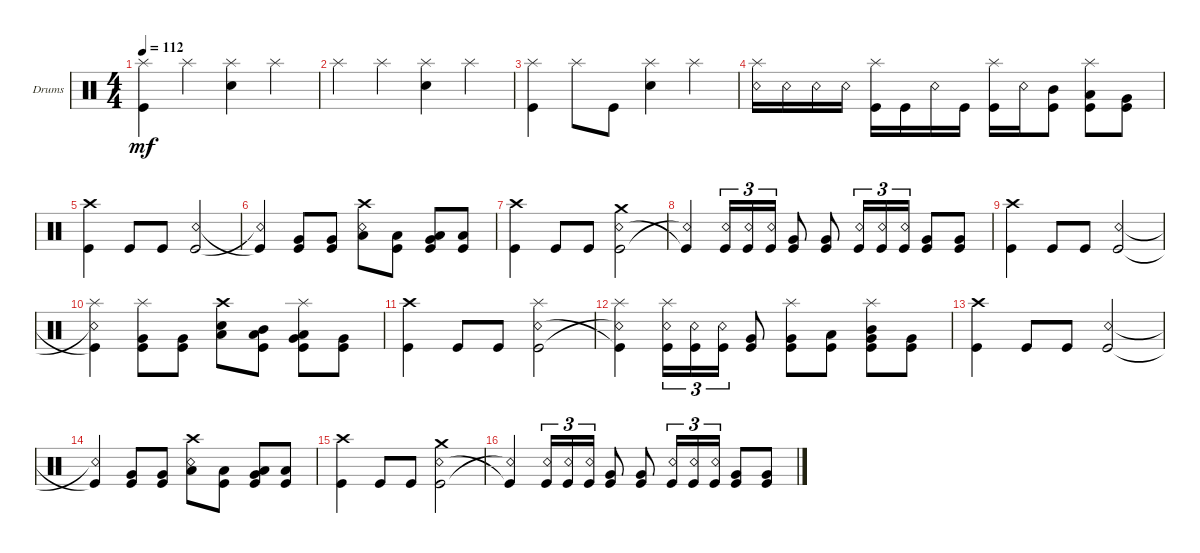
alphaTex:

\defaultSystemsLayout 4
\bracketExtendMode groupsimilarinstruments
\firstSystemTrackNameOrientation horizontal
\otherSystemsTrackNameOrientation horizontal
\track ("Drumkit" "Drums") {instrument percussion}
\staff {score}
\articulation defaults
\ts (4 4)
\tempo 112
\clef neutral
\ks c
("Splash (hit)" "Kick (hit)").4{dy mf} "Splash (hit)".4 ("Splash (hit)" "Snare (hit) 2").4 "Splash (hit)".4 |
"Splash (hit)".4 "Splash (hit)".4 ("Splash (hit)" "Snare (hit) 2").4 "Splash (hit)".4 |
("Splash (hit)" "Kick (hit)").4 "Splash (hit)".8 "Kick (hit)".8 ("Splash (hit)" "Snare (hit) 2").4 "Splash (hit)".4 |
("Snare (rim shot)" "Splash (hit)").16 "Snare (rim shot)".16 "Snare (rim shot)".16 "Snare (rim shot)".16 ("Kick (hit)" "Splash (hit)").16 "Kick (hit)".16 "Snare (rim shot)".16 "Kick (hit)".16 ("Kick (hit)" "Splash (hit)").16 "Snare (rim shot)".16 ("Kick (hit)" "Mid Tom (hit)").8 ("Kick (hit)" "Low Tom (hit)" "Splash (hit)").8 ("Kick (hit)" "Very Low Tom (hit)").8 |
("Kick (hit)" "Crash high (hit)").4 "Kick (hit)".8 "Kick (hit)".8 ("Snare (rim shot)" "Kick (hit)").2 |
("Kick (hit)"{t} "Snare (rim shot)"{t}).4 ("Kick (hit)" "Very Low Tom (hit)").8 ("Kick (hit)" "Very Low Tom (hit)").8 ("Snare (rim shot)" "Crash high (hit)" "Low Tom (hit)").8 ("Kick (hit)" "Low Tom (hit)").8 ("Kick (hit)" "Very Low Tom (hit)" "Low Tom (hit)").8 ("Kick (hit)" "Low Tom (hit)").8 |
("Kick (hit)" "Crash high (hit)").4 "Kick (hit)".8 "Kick (hit)".8 ("Snare (rim shot)" "Kick (hit)" "Crash medium (hit)").2 |
("Kick (hit)"{t} "Snare (rim shot)"{t}).4 ("Snare (rim shot)" "Kick (hit)").16{tu (3 2)} ("Kick (hit)" "Snare (rim shot)").16{tu (3 2)} ("Kick (hit)" "Snare (rim shot)").16{tu (3 2)} ("Kick (hit)" "Very Low Tom (hit)").8 ("Kick (hit)" "Very Low Tom (hit)").8 ("Snare (rim shot)" "Kick (hit)").16{tu (3 2)} ("Snare (rim shot)" "Kick (hit)").16{tu (3 2)} ("Snare (rim shot)" "Kick (hit)").16{tu (3 2)} ("Kick (hit)" "Very Low Tom (hit)").8 ("Kick (hit)" "Very Low Tom (hit)").8 |
("Kick (hit)" "Crash high (hit)").4 "Kick (hit)".8 "Kick (hit)".8 ("Snare (rim shot)" "Kick (hit)").2 |
("Kick (hit)"{t} "Snare (rim shot)"{t} "Splash (hit)").4 ("Kick (hit)" "Very Low Tom (hit)" "Splash (hit)").8 ("Kick (hit)" "Very Low Tom (hit)").8 ("Snare (hit) 2" "Crash high (hit)" "Low Tom (hit)").8 ("Kick (hit)" "Mid Tom (hit)" "Low Tom (hit)").8 ("Kick (hit)" "Very Low Tom (hit)" "Low Tom (hit)" "Splash (hit)").8 ("Kick (hit)" "Very Low Tom (hit)").8 |
("Kick (hit)" "Crash high (hit)").4 "Kick (hit)".8 "Kick (hit)".8 ("Snare (rim shot)" "Kick (hit)" "Splash (hit)").2 |
("Kick (hit)"{t} "Snare (rim shot)"{t} "Splash (hit)").4 ("Snare (rim shot)" "Kick (hit)" "Splash (hit)").16{tu (3 2)} ("Kick (hit)" "Snare (rim shot)").16{tu (3 2)} ("Kick (hit)" "Snare (rim shot)").16{tu (3 2)} ("Kick (hit)" "Very Low Tom (hit)").8 ("Kick (hit)" "Very Low Tom (hit)" "Splash (hit)").8 ("Kick (hit)" "Low Tom (hit)").8 ("Kick (hit)" "Very Low Tom (hit)" "Mid Tom (hit)" "Splash (hit)").8 ("Kick (hit)" "Very Low Tom (hit)").8 |
("Kick (hit)" "Crash high (hit)").4 "Kick (hit)".8 "Kick (hit)".8 ("Snare (rim shot)" "Kick (hit)").2 |
("Kick (hit)"{t} "Snare (rim shot)"{t}).4 ("Kick (hit)" "Very Low Tom (hit)").8 ("Kick (hit)" "Very Low Tom (hit)").8 ("Snare (rim shot)" "Crash high (hit)" "Low Tom (hit)").8 ("Kick (hit)" "Low Tom (hit)").8 ("Kick (hit)" "Very Low Tom (hit)" "Low Tom (hit)").8 ("Kick (hit)" "Low Tom (hit)").8 |
("Kick (hit)" "Crash high (hit)").4 "Kick (hit)".8 "Kick (hit)".8 ("Snare (rim shot)" "Kick (hit)" "Crash medium (hit)").2 |
("Kick (hit)"{t} "Snare (rim shot)"{t}).4 ("Snare (rim shot)" "Kick (hit)").16{tu (3 2)} ("Kick (hit)" "Snare (rim shot)").16{tu (3 2)} ("Kick (hit)" "Snare (rim shot)").16{tu (3 2)} ("Kick (hit)" "Very Low Tom (hit)").8 ("Kick (hit)" "Very Low Tom (hit)").8 ("Snare (rim shot)" "Kick (hit)").16{tu (3 2)} ("Snare (rim shot)" "Kick (hit)").16{tu (3 2)} ("Snare (rim shot)" "Kick (hit)").16{tu (3 2)} ("Kick (hit)" "Very Low Tom (hit)").8 ("Kick (hit)" "Very Low Tom (hit)").8
